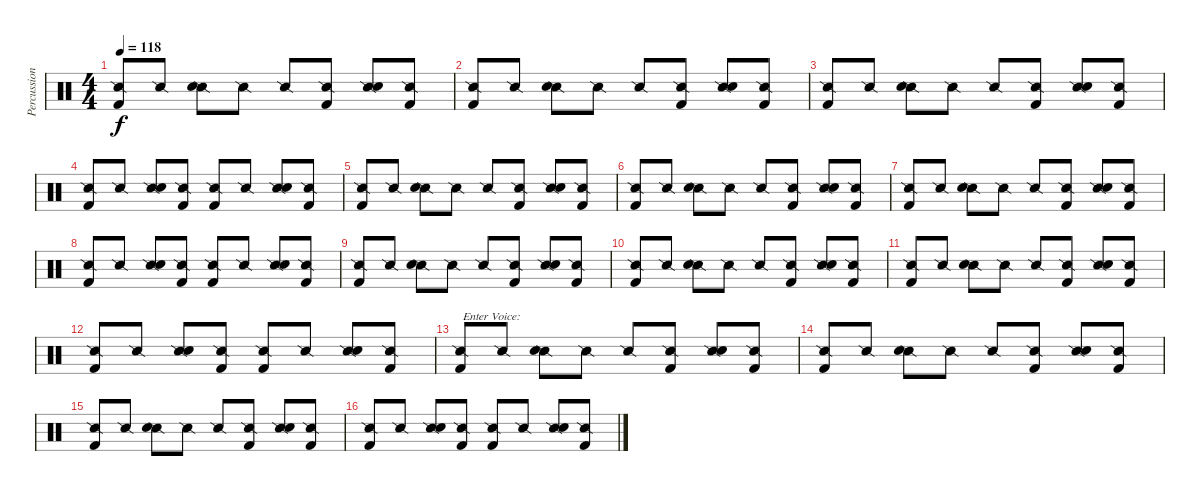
\track ("Percussion" "Percussion") {instrument percussion}
\staff {score}
\articulation defaults
\ts (4 4)
\tempo 118
\clef neutral
\ks c
("Snare (side stick) 2" "Kick (hit) 2").8{dy f} "Snare (side stick) 2".8 ("Snare (side stick) 2" "Electric Snare (hit)").8 "Snare (side stick) 2".8 "Snare (side stick) 2".8 ("Snare (side stick) 2" "Kick (hit) 2").8 ("Snare (side stick) 2" "Electric Snare (hit)").8 ("Snare (side stick) 2" "Kick (hit) 2").8 |
("Snare (side stick) 2" "Kick (hit) 2").8 "Snare (side stick) 2".8 ("Snare (side stick) 2" "Electric Snare (hit)").8 "Snare (side stick) 2".8 "Snare (side stick) 2".8 ("Snare (side stick) 2" "Kick (hit) 2").8 ("Snare (side stick) 2" "Electric Snare (hit)").8 ("Snare (side stick) 2" "Kick (hit) 2").8 |
("Snare (side stick) 2" "Kick (hit) 2").8 "Snare (side stick) 2".8 ("Snare (side stick) 2" "Electric Snare (hit)").8 "Snare (side stick) 2".8 "Snare (side stick) 2".8 ("Snare (side stick) 2" "Kick (hit) 2").8 ("Snare (side stick) 2" "Electric Snare (hit)").8 ("Snare (side stick) 2" "Kick (hit) 2").8 |
("Snare (side stick) 2" "Kick (hit) 2").8 "Snare (side stick) 2".8 ("Snare (side stick) 2" "Electric Snare (hit)").8 ("Snare (side stick) 2" "Kick (hit) 2").8 ("Snare (side stick) 2" "Kick (hit) 2").8 "Snare (side stick) 2".8 ("Snare (side stick) 2" "Electric Snare (hit)").8 ("Snare (side stick) 2" "Kick (hit) 2").8 |
("Snare (side stick) 2" "Kick (hit) 2").8 "Snare (side stick) 2".8 ("Snare (side stick) 2" "Electric Snare (hit)").8 "Snare (side stick) 2".8 "Snare (side stick) 2".8 ("Snare (side stick) 2" "Kick (hit) 2").8 ("Snare (side stick) 2" "Electric Snare (hit)").8 ("Snare (side stick) 2" "Kick (hit) 2").8 |
("Snare (side stick) 2" "Kick (hit) 2").8 "Snare (side stick) 2".8 ("Snare (side stick) 2" "Electric Snare (hit)").8 "Snare (side stick) 2".8 "Snare (side stick) 2".8 ("Snare (side stick) 2" "Kick (hit) 2").8 ("Snare (side stick) 2" "Electric Snare (hit)").8 ("Snare (side stick) 2" "Kick (hit) 2").8 |
("Snare (side stick) 2" "Kick (hit) 2").8 "Snare (side stick) 2".8 ("Snare (side stick) 2" "Electric Snare (hit)").8 "Snare (side stick) 2".8 "Snare (side stick) 2".8 ("Snare (side stick) 2" "Kick (hit) 2").8 ("Snare (side stick) 2" "Electric Snare (hit)").8 ("Snare (side stick) 2" "Kick (hit) 2").8 |
("Snare (side stick) 2" "Kick (hit) 2").8 "Snare (side stick) 2".8 ("Snare (side stick) 2" "Electric Snare (hit)").8 ("Snare (side stick) 2" "Kick (hit) 2").8 ("Snare (side stick) 2" "Kick (hit) 2").8 "Snare (side stick) 2".8 ("Snare (side stick) 2" "Electric Snare (hit)").8 ("Snare (side stick) 2" "Kick (hit) 2").8 |
("Snare (side stick) 2" "Kick (hit) 2").8 "Snare (side stick) 2".8 ("Snare (side stick) 2" "Electric Snare (hit)").8 "Snare (side stick) 2".8 "Snare (side stick) 2".8 ("Snare (side stick) 2" "Kick (hit) 2").8 ("Snare (side stick) 2" "Electric Snare (hit)").8 ("Snare (side stick) 2" "Kick (hit) 2").8 |
("Snare (side stick) 2" "Kick (hit) 2").8 "Snare (side stick) 2".8 ("Snare (side stick) 2" "Electric Snare (hit)").8 "Snare (side stick) 2".8 "Snare (side stick) 2".8 ("Snare (side stick) 2" "Kick (hit) 2").8 ("Snare (side stick) 2" "Electric Snare (hit)").8 ("Snare (side stick) 2" "Kick (hit) 2").8 |
("Snare (side stick) 2" "Kick (hit) 2").8 "Snare (side stick) 2".8 ("Snare (side stick) 2" "Electric Snare (hit)").8 "Snare (side stick) 2".8 "Snare (side stick) 2".8 ("Snare (side stick) 2" "Kick (hit) 2").8 ("Snare (side stick) 2" "Electric Snare (hit)").8 ("Snare (side stick) 2" "Kick (hit) 2").8 |
("Snare (side stick) 2" "Kick (hit) 2").8 "Snare (side stick) 2".8 ("Snare (side stick) 2" "Electric Snare (hit)").8 ("Snare (side stick) 2" "Kick (hit) 2").8 ("Snare (side stick) 2" "Kick (hit) 2").8 "Snare (side stick) 2".8 ("Snare (side stick) 2" "Electric Snare (hit)").8 ("Snare (side stick) 2" "Kick (hit) 2").8 |
("Snare (side stick) 2" "Kick (hit) 2").8{txt "Enter Voice:"} "Snare (side stick) 2".8 ("Snare (side stick) 2" "Electric Snare (hit)").8 "Snare (side stick) 2".8 "Snare (side stick) 2".8 ("Snare (side stick) 2" "Kick (hit) 2").8 ("Snare (side stick) 2" "Electric Snare (hit)").8 ("Snare (side stick) 2" "Kick (hit) 2").8 |
("Snare (side stick) 2" "Kick (hit) 2").8 "Snare (side stick) 2".8 ("Snare (side stick) 2" "Electric Snare (hit)").8 "Snare (side stick) 2".8 "Snare (side stick) 2".8 ("Snare (side stick) 2" "Kick (hit) 2").8 ("Snare (side stick) 2" "Electric Snare (hit)").8 ("Snare (side stick) 2" "Kick (hit) 2").8 |
("Snare (side stick) 2" "Kick (hit) 2").8 "Snare (side stick) 2".8 ("Snare (side stick) 2" "Electric Snare (hit)").8 "Snare (side stick) 2".8 "Snare (side stick) 2".8 ("Snare (side stick) 2" "Kick (hit) 2").8 ("Snare (side stick) 2" "Electric Snare (hit)").8 ("Snare (side stick) 2" "Kick (hit) 2").8 |
("Snare (side stick) 2" "Kick (hit) 2").8 "Snare (side stick) 2".8 ("Snare (side stick) 2" "Electric Snare (hit)").8 ("Snare (side stick) 2" "Kick (hit) 2").8 ("Snare (side stick) 2" "Kick (hit) 2").8 "Snare (side stick) 2".8 ("Snare (side stick) 2" "Electric Snare (hit)").8 ("Snare (side stick) 2" "Kick (hit) 2").8
